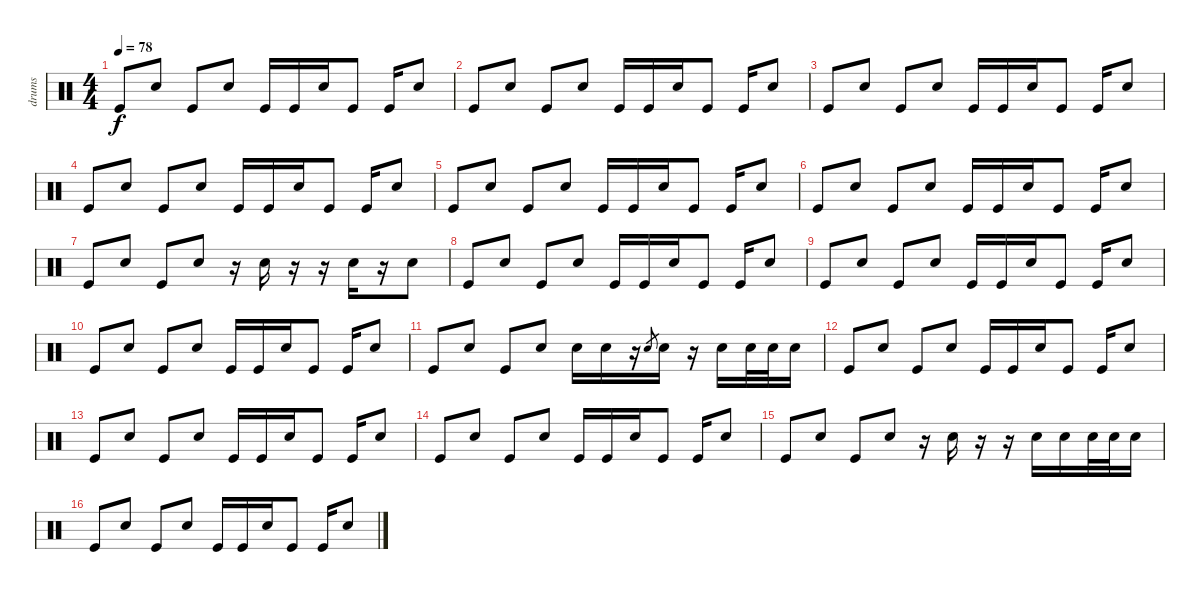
\track ("drums" "drums") {instrument percussion}
\staff {score}
\articulation defaults
\ts (4 4)
\tempo 78
\clef neutral
\ks c "Kick (hit)".8{dy f} "Snare (hit) 2".8 "Kick (hit)".8 "Snare (hit) 2".8 "Kick (hit)".16 "Kick (hit)".16 "Snare (hit) 2".16 "Kick (hit)".8 "Kick (hit)".16 "Snare (hit) 2".8
|
"Kick (hit)".8 "Snare (hit) 2".8 "Kick (hit)".8 "Snare (hit) 2".8 "Kick (hit)".16 "Kick (hit)".16 "Snare (hit) 2".16 "Kick (hit)".8 "Kick (hit)".16 "Snare (hit) 2".8 |
"Kick (hit)".8 "Snare (hit) 2".8 "Kick (hit)".8 "Snare (hit) 2".8 "Kick (hit)".16 "Kick (hit)".16 "Snare (hit) 2".16 "Kick (hit)".8 "Kick (hit)".16 "Snare (hit) 2".8 |
"Kick (hit)".8 "Snare (hit) 2".8 "Kick (hit)".8 "Snare (hit) 2".8 "Kick (hit)".16 "Kick (hit)".16 "Snare (hit) 2".16 "Kick (hit)".8 "Kick (hit)".16 "Snare (hit) 2".8 |
"Kick (hit)".8 "Snare (hit) 2".8 "Kick (hit)".8 "Snare (hit) 2".8 "Kick (hit)".16 "Kick (hit)".16 "Snare (hit) 2".16 "Kick (hit)".8 "Kick (hit)".16 "Snare (hit) 2".8 |
"Kick (hit)".8 "Snare (hit) 2".8 "Kick (hit)".8 "Snare (hit) 2".8 "Kick (hit)".16 "Kick (hit)".16 "Snare (hit) 2".16 "Kick (hit)".8 "Kick (hit)".16 "Snare (hit) 2".8 |
"Kick (hit)".8 "Snare (hit) 2".8 "Kick (hit)".8 "Snare (hit) 2".8 r.16 "Snare (hit) 2".16 r.16 r.16 "Snare (hit) 2".16 r.16 "Snare (hit) 2".8 |
"Kick (hit)".8 "Snare (hit) 2".8 "Kick (hit)".8 "Snare (hit) 2".8 "Kick (hit)".16 "Kick (hit)".16 "Snare (hit) 2".16 "Kick (hit)".8 "Kick (hit)".16 "Snare (hit) 2".8 |
"Kick (hit)".8 "Snare (hit) 2".8 "Kick (hit)".8 "Snare (hit) 2".8 "Kick (hit)".16 "Kick (hit)".16 "Snare (hit) 2".16 "Kick (hit)".8 "Kick (hit)".16 "Snare (hit) 2".8 |
"Kick (hit)".8 "Snare (hit) 2".8 "Kick (hit)".8 "Snare (hit) 2".8 "Kick (hit)".16 "Kick (hit)".16 "Snare (hit) 2".16 "Kick (hit)".8 "Kick (hit)".16 "Snare (hit) 2".8 |
"Kick (hit)".8 "Snare (hit) 2".8 "Kick (hit)".8 "Snare (hit) 2".8 "Snare (hit) 2".16 "Snare (hit) 2".16 r.16 "Snare (hit) 2".8{gr} "Snare (hit) 2".16 r.16 "Snare (hit) 2".16 "Snare (hit) 2".32 "Snare (hit) 2".32 "Snare (hit) 2".16 |
"Kick (hit)".8 "Snare (hit) 2".8 "Kick (hit)".8 "Snare (hit) 2".8 "Kick (hit)".16 "Kick (hit)".16 "Snare (hit) 2".16 "Kick (hit)".8 "Kick (hit)".16 "Snare (hit) 2".8 |
"Kick (hit)".8 "Snare (hit) 2".8 "Kick (hit)".8 "Snare (hit) 2".8 "Kick (hit)".16 "Kick (hit)".16 "Snare (hit) 2".16 "Kick (hit)".8 "Kick (hit)".16 "Snare (hit) 2".8 |
"Kick (hit)".8 "Snare (hit) 2".8 "Kick (hit)".8 "Snare (hit) 2".8 "Kick (hit)".16 "Kick (hit)".16 "Snare (hit) 2".16 "Kick (hit)".8 "Kick (hit)".16 "Snare (hit) 2".8 |
"Kick (hit)".8 "Snare (hit) 2".8 "Kick (hit)".8 "Snare (hit) 2".8 r.16 "Snare (hit) 2".16 r.16 r.16 "Snare (hit) 2".16 "Snare (hit) 2".16 "Snare (hit) 2".32 "Snare (hit) 2".32 "Snare (hit) 2".16 |
"Kick (hit)".8 "Snare (hit) 2".8 "Kick (hit)".8 "Snare (hit) 2".8 "Kick (hit)".16 "Kick (hit)".16 "Snare (hit) 2".16 "Kick (hit)".8 "Kick (hit)".16 "Snare (hit) 2".8
